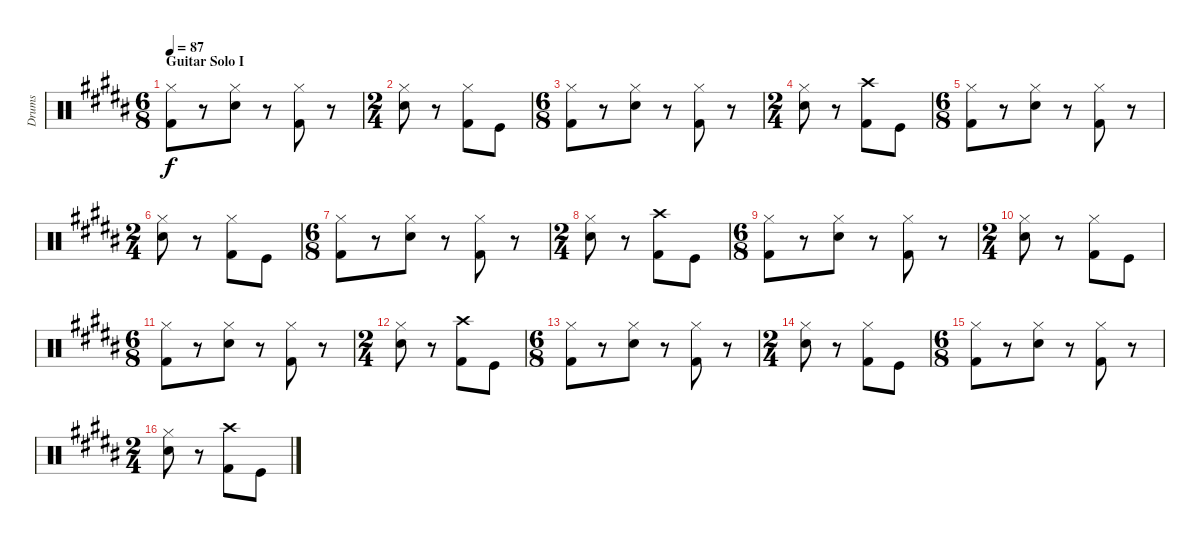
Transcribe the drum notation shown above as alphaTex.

\track ("Drums" "Drums") {instrument percussion}
\staff {score}
\articulation defaults
\ts (6 8)
\section ("" "Guitar Solo I")
\tempo 87
\clef neutral
\ks b
("Hi-Hat (closed)" "Kick (hit) 2").8{dy f} r.8 ("Hi-Hat (closed)" "Snare (hit) 2").8 r.8 ("Hi-Hat (closed)" "Kick (hit) 2").8 r.8 |
\ts (2 4)
("Hi-Hat (closed)" "Snare (hit) 2").8 r.8 ("Hi-Hat (closed)" "Kick (hit) 2").8 "Kick (hit)".8 |
\ts (6 8)
("Hi-Hat (closed)" "Kick (hit) 2").8 r.8 ("Hi-Hat (closed)" "Snare (hit) 2").8 r.8 ("Hi-Hat (closed)" "Kick (hit) 2").8 r.8 |
\ts (2 4)
("Hi-Hat (closed)" "Snare (hit) 2").8 r.8 ("Crash high (hit)" "Kick (hit) 2").8 "Kick (hit)".8 |
\ts (6 8)
("Hi-Hat (closed)" "Kick (hit) 2").8 r.8 ("Hi-Hat (closed)" "Snare (hit) 2").8 r.8 ("Hi-Hat (closed)" "Kick (hit) 2").8 r.8 |
\ts (2 4)
("Hi-Hat (closed)" "Snare (hit) 2").8 r.8 ("Hi-Hat (closed)" "Kick (hit) 2").8 "Kick (hit)".8 |
\ts (6 8)
("Hi-Hat (closed)" "Kick (hit) 2").8 r.8 ("Hi-Hat (closed)" "Snare (hit) 2").8 r.8 ("Hi-Hat (closed)" "Kick (hit) 2").8 r.8 |
\ts (2 4)
("Hi-Hat (closed)" "Snare (hit) 2").8 r.8 ("Crash high (hit)" "Kick (hit) 2").8 "Kick (hit)".8 |
\ts (6 8)
("Hi-Hat (closed)" "Kick (hit) 2").8 r.8 ("Hi-Hat (closed)" "Snare (hit) 2").8 r.8 ("Hi-Hat (closed)" "Kick (hit) 2").8 r.8 |
\ts (2 4)
("Hi-Hat (closed)" "Snare (hit) 2").8 r.8 ("Hi-Hat (closed)" "Kick (hit) 2").8 "Kick (hit)".8 |
\ts (6 8)
("Hi-Hat (closed)" "Kick (hit) 2").8 r.8 ("Hi-Hat (closed)" "Snare (hit) 2").8 r.8 ("Hi-Hat (closed)" "Kick (hit) 2").8 r.8 |
\ts (2 4)
("Hi-Hat (closed)" "Snare (hit) 2").8 r.8 ("Crash high (hit)" "Kick (hit) 2").8 "Kick (hit)".8 |
\ts (6 8)
("Hi-Hat (closed)" "Kick (hit) 2").8 r.8 ("Hi-Hat (closed)" "Snare (hit) 2").8 r.8 ("Hi-Hat (closed)" "Kick (hit) 2").8 r.8 |
\ts (2 4)
("Hi-Hat (closed)" "Snare (hit) 2").8 r.8 ("Hi-Hat (closed)" "Kick (hit) 2").8 "Kick (hit)".8 |
\ts (6 8)
("Hi-Hat (closed)" "Kick (hit) 2").8 r.8 ("Hi-Hat (closed)" "Snare (hit) 2").8 r.8 ("Hi-Hat (closed)" "Kick (hit) 2").8 r.8 |
\ts (2 4)
("Hi-Hat (closed)" "Snare (hit) 2").8 r.8 ("Crash high (hit)" "Kick (hit) 2").8 "Kick (hit)".8
